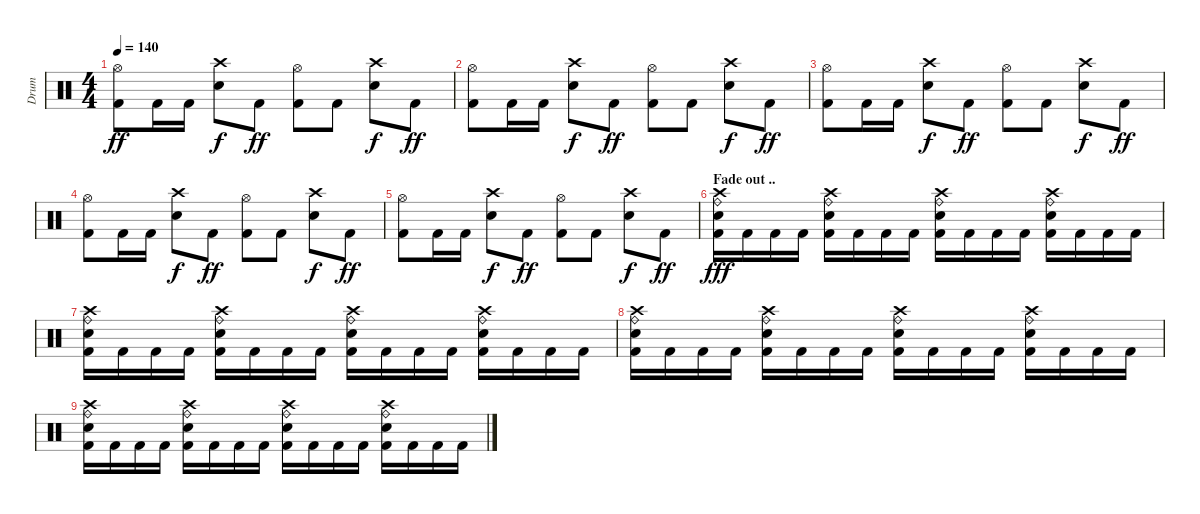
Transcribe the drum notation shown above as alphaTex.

\track ("Drum" "Drum") {instrument percussion}
\staff {score}
\articulation defaults
\ts (4 4)
\tempo 140
\clef neutral
\ks c
("Hi-Hat (open)" "Kick (hit) 2").8{dy ff} "Kick (hit) 2".16 "Kick (hit) 2".16 ("Crash high (hit)" "Snare (hit) 2").8{dy f} "Kick (hit) 2".8{dy ff} ("Hi-Hat (open)" "Kick (hit) 2").8 "Kick (hit) 2".8 ("Crash high (hit)" "Snare (hit) 2").8{dy f} "Kick (hit) 2".8{dy ff} |
("Hi-Hat (open)" "Kick (hit) 2").8 "Kick (hit) 2".16 "Kick (hit) 2".16 ("Crash high (hit)" "Snare (hit) 2").8{dy f} "Kick (hit) 2".8{dy ff} ("Hi-Hat (open)" "Kick (hit) 2").8 "Kick (hit) 2".8 ("Crash high (hit)" "Snare (hit) 2").8{dy f} "Kick (hit) 2".8{dy ff} |
("Hi-Hat (open)" "Kick (hit) 2").8 "Kick (hit) 2".16 "Kick (hit) 2".16 ("Crash high (hit)" "Snare (hit) 2").8{dy f} "Kick (hit) 2".8{dy ff} ("Hi-Hat (open)" "Kick (hit) 2").8 "Kick (hit) 2".8 ("Crash high (hit)" "Snare (hit) 2").8{dy f} "Kick (hit) 2".8{dy ff} |
("Hi-Hat (open)" "Kick (hit) 2").8 "Kick (hit) 2".16 "Kick (hit) 2".16 ("Crash high (hit)" "Snare (hit) 2").8{dy f} "Kick (hit) 2".8{dy ff} ("Hi-Hat (open)" "Kick (hit) 2").8 "Kick (hit) 2".8 ("Crash high (hit)" "Snare (hit) 2").8{dy f} "Kick (hit) 2".8{dy ff} |
("Hi-Hat (open)" "Kick (hit) 2").8 "Kick (hit) 2".16 "Kick (hit) 2".16 ("Crash high (hit)" "Snare (hit) 2").8{dy f} "Kick (hit) 2".8{dy ff} ("Hi-Hat (open)" "Kick (hit) 2").8 "Kick (hit) 2".8 ("Crash high (hit)" "Snare (hit) 2").8{dy f} "Kick (hit) 2".8{dy ff} |
\section ("" "Fade out ..")
("Crash high (hit)" "Ride (bell)" "Snare (hit) 2" "Kick (hit) 2").16{dy fff volume 9} "Kick (hit) 2".16 "Kick (hit) 2".16 "Kick (hit) 2".16 ("Crash high (hit)" "Ride (bell)" "Snare (hit) 2" "Kick (hit) 2").16 "Kick (hit) 2".16 "Kick (hit) 2".16 "Kick (hit) 2".16 ("Crash high (hit)" "Ride (bell)" "Snare (hit) 2" "Kick (hit) 2").16 "Kick (hit) 2".16 "Kick (hit) 2".16 "Kick (hit) 2".16 ("Crash high (hit)" "Ride (bell)" "Snare (hit) 2" "Kick (hit) 2").16 "Kick (hit) 2".16 "Kick (hit) 2".16 "Kick (hit) 2".16 |
("Crash high (hit)" "Ride (bell)" "Snare (hit) 2" "Kick (hit) 2").16 "Kick (hit) 2".16 "Kick (hit) 2".16 "Kick (hit) 2".16 ("Crash high (hit)" "Ride (bell)" "Snare (hit) 2" "Kick (hit) 2").16 "Kick (hit) 2".16 "Kick (hit) 2".16 "Kick (hit) 2".16 ("Crash high (hit)" "Ride (bell)" "Snare (hit) 2" "Kick (hit) 2").16 "Kick (hit) 2".16 "Kick (hit) 2".16 "Kick (hit) 2".16 ("Crash high (hit)" "Ride (bell)" "Snare (hit) 2" "Kick (hit) 2").16 "Kick (hit) 2".16 "Kick (hit) 2".16 "Kick (hit) 2".16 |
("Crash high (hit)" "Ride (bell)" "Snare (hit) 2" "Kick (hit) 2").16{volume 0} "Kick (hit) 2".16 "Kick (hit) 2".16 "Kick (hit) 2".16 ("Crash high (hit)" "Ride (bell)" "Snare (hit) 2" "Kick (hit) 2").16 "Kick (hit) 2".16 "Kick (hit) 2".16 "Kick (hit) 2".16 ("Crash high (hit)" "Ride (bell)" "Snare (hit) 2" "Kick (hit) 2").16 "Kick (hit) 2".16 "Kick (hit) 2".16 "Kick (hit) 2".16 ("Crash high (hit)" "Ride (bell)" "Snare (hit) 2" "Kick (hit) 2").16 "Kick (hit) 2".16 "Kick (hit) 2".16 "Kick (hit) 2".16 |
("Crash high (hit)" "Ride (bell)" "Snare (hit) 2" "Kick (hit) 2").16 "Kick (hit) 2".16 "Kick (hit) 2".16 "Kick (hit) 2".16 ("Crash high (hit)" "Ride (bell)" "Snare (hit) 2" "Kick (hit) 2").16 "Kick (hit) 2".16 "Kick (hit) 2".16 "Kick (hit) 2".16 ("Crash high (hit)" "Ride (bell)" "Snare (hit) 2" "Kick (hit) 2").16 "Kick (hit) 2".16 "Kick (hit) 2".16 "Kick (hit) 2".16 ("Crash high (hit)" "Ride (bell)" "Snare (hit) 2" "Kick (hit) 2").16 "Kick (hit) 2".16 "Kick (hit) 2".16 "Kick (hit) 2".16
